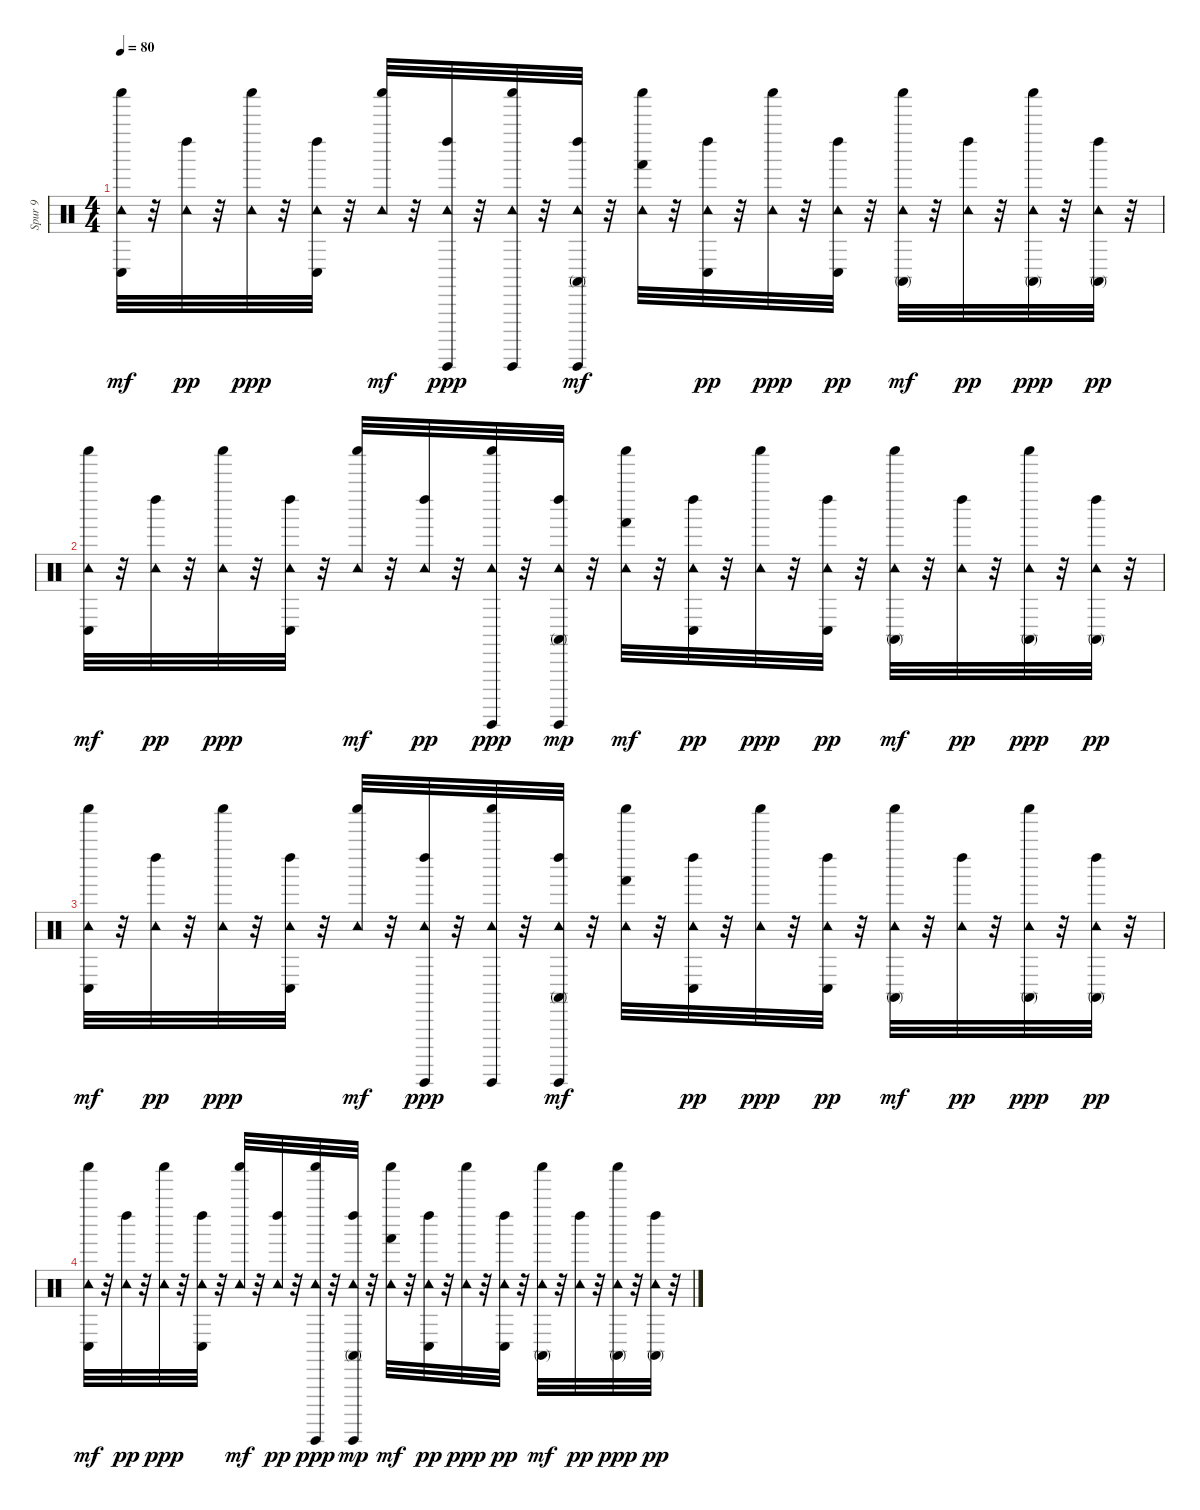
\track ("Spur 9" "Spur 9") {instrument percussion}
\staff {score}
\articulation defaults
\ts (4 4)
\tempo 80
\clef neutral
\ks c
("Tambourine (hit)" "Conga low (hit)" "Shaker (hit)").32{dy mf} r.32 ("Tambourine (hit)" "Left Maraca (hit)").32{dy pp} r.32 ("Tambourine (hit)" "Shaker (hit)").32{dy ppp} r.32 ("Tambourine (hit)" "Conga low (hit)" "Left Maraca (hit)").32 r.32 ("Tambourine (hit)" "Shaker (hit)").32{dy mf} r.32 ("Tambourine (hit)" "Left Maraca (hit)" "Guiro (hit)").32{dy ppp} r.32 ("Tambourine (hit)" "Guiro (hit)" "Shaker (hit)").32 r.32 ("Tambourine (hit)" "Conga high (mute)" "Left Maraca (hit)" "Guiro (hit)").32{dy mf} r.32 ("Tambourine (hit)" "Hand (hit)" "Shaker (hit)").32 r.32 ("Tambourine (hit)" "Conga low (hit)" "Left Maraca (hit)").32{dy pp} r.32 ("Tambourine (hit)" "Shaker (hit)").32{dy ppp} r.32 ("Tambourine (hit)" "Conga low (hit)" "Left Maraca (hit)").32{dy pp} r.32 ("Tambourine (hit)" "Conga high (mute)" "Shaker (hit)").32{dy mf} r.32 ("Tambourine (hit)" "Left Maraca (hit)").32{dy pp} r.32 ("Tambourine (hit)" "Conga high (mute)" "Shaker (hit)").32{dy ppp} r.32 ("Tambourine (hit)" "Conga high (mute)" "Left Maraca (hit)").32{dy pp} r.32 |
("Tambourine (hit)" "Conga low (hit)" "Shaker (hit)").32{dy mf} r.32 ("Tambourine (hit)" "Left Maraca (hit)").32{dy pp} r.32 ("Tambourine (hit)" "Shaker (hit)").32{dy ppp} r.32 ("Tambourine (hit)" "Conga low (hit)" "Left Maraca (hit)").32 r.32 ("Tambourine (hit)" "Shaker (hit)").32{dy mf} r.32 ("Tambourine (hit)" "Left Maraca (hit)").32{dy pp} r.32 ("Tambourine (hit)" "Guiro (hit)" "Shaker (hit)").32{dy ppp} r.32 ("Tambourine (hit)" "Conga high (mute)" "Left Maraca (hit)" "Guiro (hit)").32{dy mp} r.32 ("Tambourine (hit)" "Hand (hit)" "Shaker (hit)").32{dy mf} r.32 ("Tambourine (hit)" "Conga low (hit)" "Left Maraca (hit)").32{dy pp} r.32 ("Tambourine (hit)" "Shaker (hit)").32{dy ppp} r.32 ("Tambourine (hit)" "Conga low (hit)" "Left Maraca (hit)").32{dy pp} r.32 ("Tambourine (hit)" "Conga high (mute)" "Shaker (hit)").32{dy mf} r.32 ("Tambourine (hit)" "Left Maraca (hit)").32{dy pp} r.32 ("Tambourine (hit)" "Conga high (mute)" "Shaker (hit)").32{dy ppp} r.32 ("Tambourine (hit)" "Conga high (mute)" "Left Maraca (hit)").32{dy pp} r.32 |
("Tambourine (hit)" "Conga low (hit)" "Shaker (hit)").32{dy mf} r.32 ("Tambourine (hit)" "Left Maraca (hit)").32{dy pp} r.32 ("Tambourine (hit)" "Shaker (hit)").32{dy ppp} r.32 ("Tambourine (hit)" "Conga low (hit)" "Left Maraca (hit)").32 r.32 ("Tambourine (hit)" "Shaker (hit)").32{dy mf} r.32 ("Tambourine (hit)" "Left Maraca (hit)" "Guiro (hit)").32{dy ppp} r.32 ("Tambourine (hit)" "Guiro (hit)" "Shaker (hit)").32 r.32 ("Tambourine (hit)" "Conga high (mute)" "Left Maraca (hit)" "Guiro (hit)").32{dy mf} r.32 ("Tambourine (hit)" "Hand (hit)" "Shaker (hit)").32 r.32 ("Tambourine (hit)" "Conga low (hit)" "Left Maraca (hit)").32{dy pp} r.32 ("Tambourine (hit)" "Shaker (hit)").32{dy ppp} r.32 ("Tambourine (hit)" "Conga low (hit)" "Left Maraca (hit)").32{dy pp} r.32 ("Tambourine (hit)" "Conga high (mute)" "Shaker (hit)").32{dy mf} r.32 ("Tambourine (hit)" "Left Maraca (hit)").32{dy pp} r.32 ("Tambourine (hit)" "Conga high (mute)" "Shaker (hit)").32{dy ppp} r.32 ("Tambourine (hit)" "Conga high (mute)" "Left Maraca (hit)").32{dy pp} r.32 |
("Tambourine (hit)" "Conga low (hit)" "Shaker (hit)").32{dy mf} r.32 ("Tambourine (hit)" "Left Maraca (hit)").32{dy pp} r.32 ("Tambourine (hit)" "Shaker (hit)").32{dy ppp} r.32 ("Tambourine (hit)" "Conga low (hit)" "Left Maraca (hit)").32 r.32 ("Tambourine (hit)" "Shaker (hit)").32{dy mf} r.32 ("Tambourine (hit)" "Left Maraca (hit)").32{dy pp} r.32 ("Tambourine (hit)" "Guiro (hit)" "Shaker (hit)").32{dy ppp} r.32 ("Tambourine (hit)" "Conga high (mute)" "Left Maraca (hit)" "Guiro (hit)").32{dy mp} r.32 ("Tambourine (hit)" "Hand (hit)" "Shaker (hit)").32{dy mf} r.32 ("Tambourine (hit)" "Conga low (hit)" "Left Maraca (hit)").32{dy pp} r.32 ("Tambourine (hit)" "Shaker (hit)").32{dy ppp} r.32 ("Tambourine (hit)" "Conga low (hit)" "Left Maraca (hit)").32{dy pp} r.32 ("Tambourine (hit)" "Conga high (mute)" "Shaker (hit)").32{dy mf} r.32 ("Tambourine (hit)" "Left Maraca (hit)").32{dy pp} r.32 ("Tambourine (hit)" "Conga high (mute)" "Shaker (hit)").32{dy ppp} r.32 ("Tambourine (hit)" "Conga high (mute)" "Left Maraca (hit)").32{dy pp} r.32
